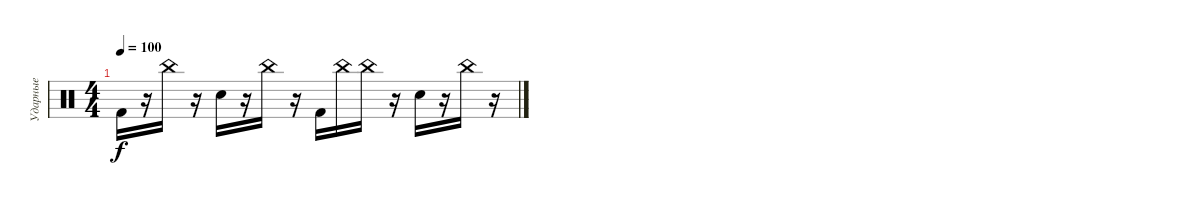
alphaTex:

\track ("Ударные" "Ударные") {instrument percussion}
\staff {score}
\articulation defaults
\ts (4 4)
\tempo 100
\clef neutral
\ks c "Kick (hit) 2".16{dy f}
r.16 "China (hit)".16 r.16 "Electric Snare (hit)".16 r.16 "China (hit)".16 r.16 "Kick (hit) 2".16 "China (hit)".16 "China (hit)".16 r.16 "Electric Snare (hit)".16 r.16 "China (hit)".16 r.16
